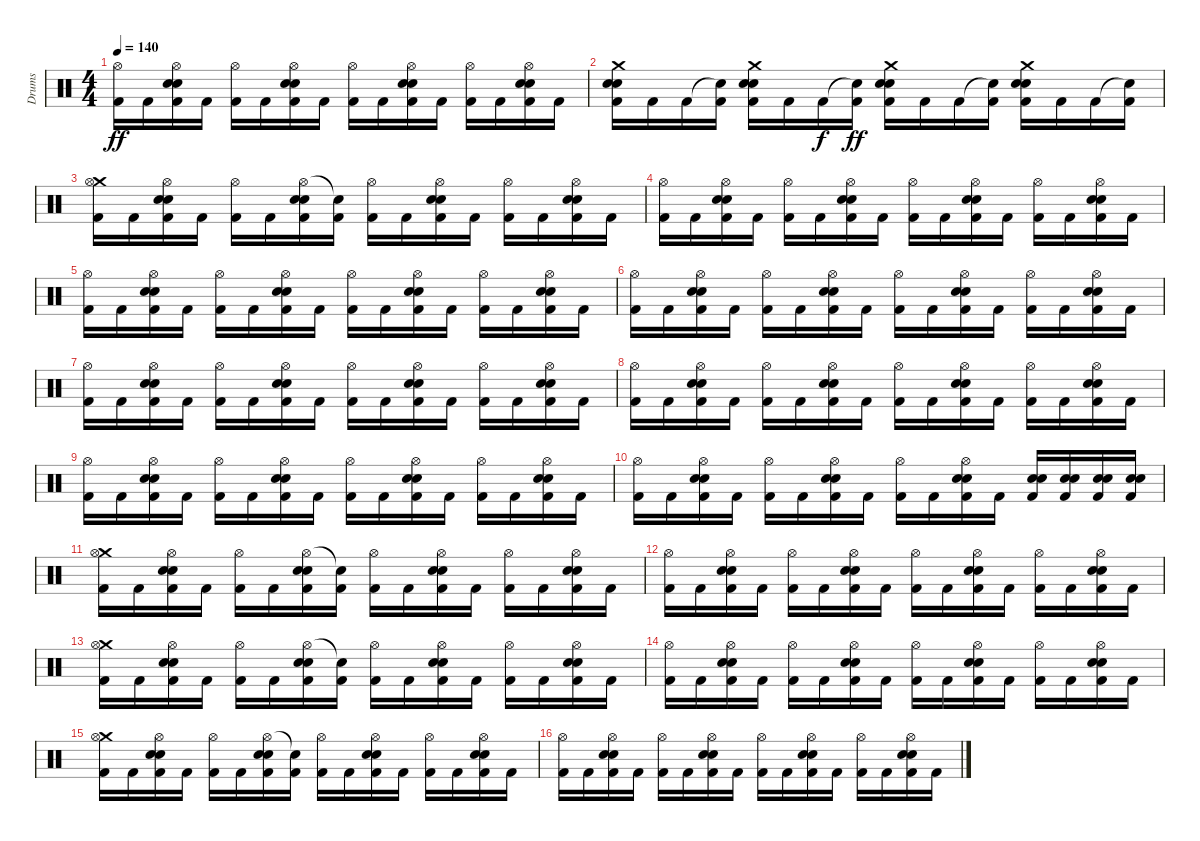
\track ("Drums" "Drums") {instrument percussion}
\staff {score}
\articulation defaults
\ts (4 4)
\tempo 140
\clef neutral
\ks c
("Hi-Hat (open)" "Kick (hit) 2").16{dy ff} "Kick (hit) 2".16 ("Hi-Hat (open)" "Electric Snare (hit)" "Electric Snare (hit)" "Kick (hit) 2").16 "Kick (hit) 2".16 ("Hi-Hat (open)" "Kick (hit) 2").16 "Kick (hit) 2".16 ("Hi-Hat (open)" "Electric Snare (hit)" "Electric Snare (hit)" "Kick (hit) 2").16 "Kick (hit) 2".16 ("Hi-Hat (open)" "Kick (hit) 2").16 "Kick (hit) 2".16 ("Hi-Hat (open)" "Electric Snare (hit)" "Electric Snare (hit)" "Kick (hit) 2").16 "Kick (hit) 2".16 ("Hi-Hat (open)" "Kick (hit) 2").16 "Kick (hit) 2".16 ("Hi-Hat (open)" "Electric Snare (hit)" "Electric Snare (hit)" "Kick (hit) 2").16 "Kick (hit) 2".16 |
("Crash medium (hit)" "Electric Snare (hit)" "Electric Snare (hit)" "Kick (hit) 2").16 "Kick (hit) 2".16 "Kick (hit) 2".16 ("Snare (hit)"{t} "Kick (hit) 2").16 ("Crash medium (hit)" "Electric Snare (hit)" "Electric Snare (hit)" "Kick (hit) 2").16 "Kick (hit) 2".16 "Kick (hit) 2".16{dy f} ("Snare (hit)"{t} "Kick (hit) 2").16{dy ff} ("Crash medium (hit)" "Electric Snare (hit)" "Electric Snare (hit)" "Kick (hit) 2").16 "Kick (hit) 2".16 "Kick (hit) 2".16 ("Snare (hit)"{t} "Kick (hit) 2").16 ("Crash medium (hit)" "Electric Snare (hit)" "Electric Snare (hit)" "Kick (hit) 2").16 "Kick (hit) 2".16 "Kick (hit) 2".16 ("Snare (hit)"{t} "Kick (hit) 2").16 |
("Crash medium (hit)" "Hi-Hat (open)" "Kick (hit) 2").16 "Kick (hit) 2".16 ("Hi-Hat (open)" "Electric Snare (hit)" "Electric Snare (hit)" "Kick (hit) 2").16 "Kick (hit) 2".16 ("Hi-Hat (open)" "Kick (hit) 2").16 "Kick (hit) 2".16 ("Hi-Hat (open)" "Electric Snare (hit)" "Electric Snare (hit)" "Kick (hit) 2").16 ("Snare (hit)"{t} "Kick (hit) 2").16 ("Hi-Hat (open)" "Kick (hit) 2").16 "Kick (hit) 2".16 ("Hi-Hat (open)" "Electric Snare (hit)" "Electric Snare (hit)" "Kick (hit) 2").16 "Kick (hit) 2".16 ("Hi-Hat (open)" "Kick (hit) 2").16 "Kick (hit) 2".16 ("Hi-Hat (open)" "Electric Snare (hit)" "Electric Snare (hit)" "Kick (hit) 2").16 "Kick (hit) 2".16 |
("Hi-Hat (open)" "Kick (hit) 2").16 "Kick (hit) 2".16 ("Hi-Hat (open)" "Electric Snare (hit)" "Electric Snare (hit)" "Kick (hit) 2").16 "Kick (hit) 2".16 ("Hi-Hat (open)" "Kick (hit) 2").16 "Kick (hit) 2".16 ("Hi-Hat (open)" "Electric Snare (hit)" "Electric Snare (hit)" "Kick (hit) 2").16 "Kick (hit) 2".16 ("Hi-Hat (open)" "Kick (hit) 2").16 "Kick (hit) 2".16 ("Hi-Hat (open)" "Electric Snare (hit)" "Electric Snare (hit)" "Kick (hit) 2").16 "Kick (hit) 2".16 ("Hi-Hat (open)" "Kick (hit) 2").16 "Kick (hit) 2".16 ("Hi-Hat (open)" "Electric Snare (hit)" "Electric Snare (hit)" "Kick (hit) 2").16 "Kick (hit) 2".16 |
("Hi-Hat (open)" "Kick (hit) 2").16 "Kick (hit) 2".16 ("Hi-Hat (open)" "Electric Snare (hit)" "Electric Snare (hit)" "Kick (hit) 2").16 "Kick (hit) 2".16 ("Hi-Hat (open)" "Kick (hit) 2").16 "Kick (hit) 2".16 ("Hi-Hat (open)" "Electric Snare (hit)" "Electric Snare (hit)" "Kick (hit) 2").16 "Kick (hit) 2".16 ("Hi-Hat (open)" "Kick (hit) 2").16 "Kick (hit) 2".16 ("Hi-Hat (open)" "Electric Snare (hit)" "Electric Snare (hit)" "Kick (hit) 2").16 "Kick (hit) 2".16 ("Hi-Hat (open)" "Kick (hit) 2").16 "Kick (hit) 2".16 ("Hi-Hat (open)" "Electric Snare (hit)" "Electric Snare (hit)" "Kick (hit) 2").16 "Kick (hit) 2".16 |
("Hi-Hat (open)" "Kick (hit) 2").16 "Kick (hit) 2".16 ("Hi-Hat (open)" "Electric Snare (hit)" "Electric Snare (hit)" "Kick (hit) 2").16 "Kick (hit) 2".16 ("Hi-Hat (open)" "Kick (hit) 2").16 "Kick (hit) 2".16 ("Hi-Hat (open)" "Electric Snare (hit)" "Electric Snare (hit)" "Kick (hit) 2").16 "Kick (hit) 2".16 ("Hi-Hat (open)" "Kick (hit) 2").16 "Kick (hit) 2".16 ("Hi-Hat (open)" "Electric Snare (hit)" "Electric Snare (hit)" "Kick (hit) 2").16 "Kick (hit) 2".16 ("Hi-Hat (open)" "Kick (hit) 2").16 "Kick (hit) 2".16 ("Hi-Hat (open)" "Electric Snare (hit)" "Electric Snare (hit)" "Kick (hit) 2").16 "Kick (hit) 2".16 |
("Hi-Hat (open)" "Kick (hit) 2").16 "Kick (hit) 2".16 ("Hi-Hat (open)" "Electric Snare (hit)" "Electric Snare (hit)" "Kick (hit) 2").16 "Kick (hit) 2".16 ("Hi-Hat (open)" "Kick (hit) 2").16 "Kick (hit) 2".16 ("Hi-Hat (open)" "Electric Snare (hit)" "Electric Snare (hit)" "Kick (hit) 2").16 "Kick (hit) 2".16 ("Hi-Hat (open)" "Kick (hit) 2").16 "Kick (hit) 2".16 ("Hi-Hat (open)" "Electric Snare (hit)" "Electric Snare (hit)" "Kick (hit) 2").16 "Kick (hit) 2".16 ("Hi-Hat (open)" "Kick (hit) 2").16 "Kick (hit) 2".16 ("Hi-Hat (open)" "Electric Snare (hit)" "Electric Snare (hit)" "Kick (hit) 2").16 "Kick (hit) 2".16 |
("Hi-Hat (open)" "Kick (hit) 2").16 "Kick (hit) 2".16 ("Hi-Hat (open)" "Electric Snare (hit)" "Electric Snare (hit)" "Kick (hit) 2").16 "Kick (hit) 2".16 ("Hi-Hat (open)" "Kick (hit) 2").16 "Kick (hit) 2".16 ("Hi-Hat (open)" "Electric Snare (hit)" "Electric Snare (hit)" "Kick (hit) 2").16 "Kick (hit) 2".16 ("Hi-Hat (open)" "Kick (hit) 2").16 "Kick (hit) 2".16 ("Hi-Hat (open)" "Electric Snare (hit)" "Electric Snare (hit)" "Kick (hit) 2").16 "Kick (hit) 2".16 ("Hi-Hat (open)" "Kick (hit) 2").16 "Kick (hit) 2".16 ("Hi-Hat (open)" "Electric Snare (hit)" "Electric Snare (hit)" "Kick (hit) 2").16 "Kick (hit) 2".16 |
("Hi-Hat (open)" "Kick (hit) 2").16 "Kick (hit) 2".16 ("Hi-Hat (open)" "Electric Snare (hit)" "Electric Snare (hit)" "Kick (hit) 2").16 "Kick (hit) 2".16 ("Hi-Hat (open)" "Kick (hit) 2").16 "Kick (hit) 2".16 ("Hi-Hat (open)" "Electric Snare (hit)" "Electric Snare (hit)" "Kick (hit) 2").16 "Kick (hit) 2".16 ("Hi-Hat (open)" "Kick (hit) 2").16 "Kick (hit) 2".16 ("Hi-Hat (open)" "Electric Snare (hit)" "Electric Snare (hit)" "Kick (hit) 2").16 "Kick (hit) 2".16 ("Hi-Hat (open)" "Kick (hit) 2").16 "Kick (hit) 2".16 ("Hi-Hat (open)" "Electric Snare (hit)" "Electric Snare (hit)" "Kick (hit) 2").16 "Kick (hit) 2".16 |
("Hi-Hat (open)" "Kick (hit) 2").16 "Kick (hit) 2".16 ("Hi-Hat (open)" "Electric Snare (hit)" "Electric Snare (hit)" "Kick (hit) 2").16 "Kick (hit) 2".16 ("Hi-Hat (open)" "Kick (hit) 2").16 "Kick (hit) 2".16 ("Hi-Hat (open)" "Electric Snare (hit)" "Electric Snare (hit)" "Kick (hit) 2").16 "Kick (hit) 2".16 ("Hi-Hat (open)" "Kick (hit) 2").16 "Kick (hit) 2".16 ("Hi-Hat (open)" "Electric Snare (hit)" "Electric Snare (hit)" "Kick (hit) 2").16 "Kick (hit) 2".16 ("Electric Snare (hit)" "Electric Snare (hit)" "Kick (hit) 2").16 ("Electric Snare (hit)" "Electric Snare (hit)" "Kick (hit) 2").16 ("Electric Snare (hit)" "Electric Snare (hit)" "Kick (hit) 2").16 ("Electric Snare (hit)" "Electric Snare (hit)" "Kick (hit) 2").16 |
("Crash medium (hit)" "Hi-Hat (open)" "Kick (hit) 2").16 "Kick (hit) 2".16 ("Hi-Hat (open)" "Electric Snare (hit)" "Electric Snare (hit)" "Kick (hit) 2").16 "Kick (hit) 2".16 ("Hi-Hat (open)" "Kick (hit) 2").16 "Kick (hit) 2".16 ("Hi-Hat (open)" "Electric Snare (hit)" "Electric Snare (hit)" "Kick (hit) 2").16 ("Snare (hit)"{t} "Kick (hit) 2").16 ("Hi-Hat (open)" "Kick (hit) 2").16 "Kick (hit) 2".16 ("Hi-Hat (open)" "Electric Snare (hit)" "Electric Snare (hit)" "Kick (hit) 2").16 "Kick (hit) 2".16 ("Hi-Hat (open)" "Kick (hit) 2").16 "Kick (hit) 2".16 ("Hi-Hat (open)" "Electric Snare (hit)" "Electric Snare (hit)" "Kick (hit) 2").16 "Kick (hit) 2".16 |
("Hi-Hat (open)" "Kick (hit) 2").16 "Kick (hit) 2".16 ("Hi-Hat (open)" "Electric Snare (hit)" "Electric Snare (hit)" "Kick (hit) 2").16 "Kick (hit) 2".16 ("Hi-Hat (open)" "Kick (hit) 2").16 "Kick (hit) 2".16 ("Hi-Hat (open)" "Electric Snare (hit)" "Electric Snare (hit)" "Kick (hit) 2").16 "Kick (hit) 2".16 ("Hi-Hat (open)" "Kick (hit) 2").16 "Kick (hit) 2".16 ("Hi-Hat (open)" "Electric Snare (hit)" "Electric Snare (hit)" "Kick (hit) 2").16 "Kick (hit) 2".16 ("Hi-Hat (open)" "Kick (hit) 2").16 "Kick (hit) 2".16 ("Hi-Hat (open)" "Electric Snare (hit)" "Electric Snare (hit)" "Kick (hit) 2").16 "Kick (hit) 2".16 |
("Crash medium (hit)" "Hi-Hat (open)" "Kick (hit) 2").16 "Kick (hit) 2".16 ("Hi-Hat (open)" "Electric Snare (hit)" "Electric Snare (hit)" "Kick (hit) 2").16 "Kick (hit) 2".16 ("Hi-Hat (open)" "Kick (hit) 2").16 "Kick (hit) 2".16 ("Hi-Hat (open)" "Electric Snare (hit)" "Electric Snare (hit)" "Kick (hit) 2").16 ("Snare (hit)"{t} "Kick (hit) 2").16 ("Hi-Hat (open)" "Kick (hit) 2").16 "Kick (hit) 2".16 ("Hi-Hat (open)" "Electric Snare (hit)" "Electric Snare (hit)" "Kick (hit) 2").16 "Kick (hit) 2".16 ("Hi-Hat (open)" "Kick (hit) 2").16 "Kick (hit) 2".16 ("Hi-Hat (open)" "Electric Snare (hit)" "Electric Snare (hit)" "Kick (hit) 2").16 "Kick (hit) 2".16 |
("Hi-Hat (open)" "Kick (hit) 2").16 "Kick (hit) 2".16 ("Hi-Hat (open)" "Electric Snare (hit)" "Electric Snare (hit)" "Kick (hit) 2").16 "Kick (hit) 2".16 ("Hi-Hat (open)" "Kick (hit) 2").16 "Kick (hit) 2".16 ("Hi-Hat (open)" "Electric Snare (hit)" "Electric Snare (hit)" "Kick (hit) 2").16 "Kick (hit) 2".16 ("Hi-Hat (open)" "Kick (hit) 2").16 "Kick (hit) 2".16 ("Hi-Hat (open)" "Electric Snare (hit)" "Electric Snare (hit)" "Kick (hit) 2").16 "Kick (hit) 2".16 ("Hi-Hat (open)" "Kick (hit) 2").16 "Kick (hit) 2".16 ("Hi-Hat (open)" "Electric Snare (hit)" "Electric Snare (hit)" "Kick (hit) 2").16 "Kick (hit) 2".16 |
("Crash medium (hit)" "Hi-Hat (open)" "Kick (hit) 2").16 "Kick (hit) 2".16 ("Hi-Hat (open)" "Electric Snare (hit)" "Electric Snare (hit)" "Kick (hit) 2").16 "Kick (hit) 2".16 ("Hi-Hat (open)" "Kick (hit) 2").16 "Kick (hit) 2".16 ("Hi-Hat (open)" "Electric Snare (hit)" "Electric Snare (hit)" "Kick (hit) 2").16 ("Snare (hit)"{t} "Kick (hit) 2").16 ("Hi-Hat (open)" "Kick (hit) 2").16 "Kick (hit) 2".16 ("Hi-Hat (open)" "Electric Snare (hit)" "Electric Snare (hit)" "Kick (hit) 2").16 "Kick (hit) 2".16 ("Hi-Hat (open)" "Kick (hit) 2").16 "Kick (hit) 2".16 ("Hi-Hat (open)" "Electric Snare (hit)" "Electric Snare (hit)" "Kick (hit) 2").16 "Kick (hit) 2".16 |
("Hi-Hat (open)" "Kick (hit) 2").16 "Kick (hit) 2".16 ("Hi-Hat (open)" "Electric Snare (hit)" "Electric Snare (hit)" "Kick (hit) 2").16 "Kick (hit) 2".16 ("Hi-Hat (open)" "Kick (hit) 2").16 "Kick (hit) 2".16 ("Hi-Hat (open)" "Electric Snare (hit)" "Electric Snare (hit)" "Kick (hit) 2").16 "Kick (hit) 2".16 ("Hi-Hat (open)" "Kick (hit) 2").16 "Kick (hit) 2".16 ("Hi-Hat (open)" "Electric Snare (hit)" "Electric Snare (hit)" "Kick (hit) 2").16 "Kick (hit) 2".16 ("Hi-Hat (open)" "Kick (hit) 2").16 "Kick (hit) 2".16 ("Hi-Hat (open)" "Electric Snare (hit)" "Electric Snare (hit)" "Kick (hit) 2").16 "Kick (hit) 2".16
